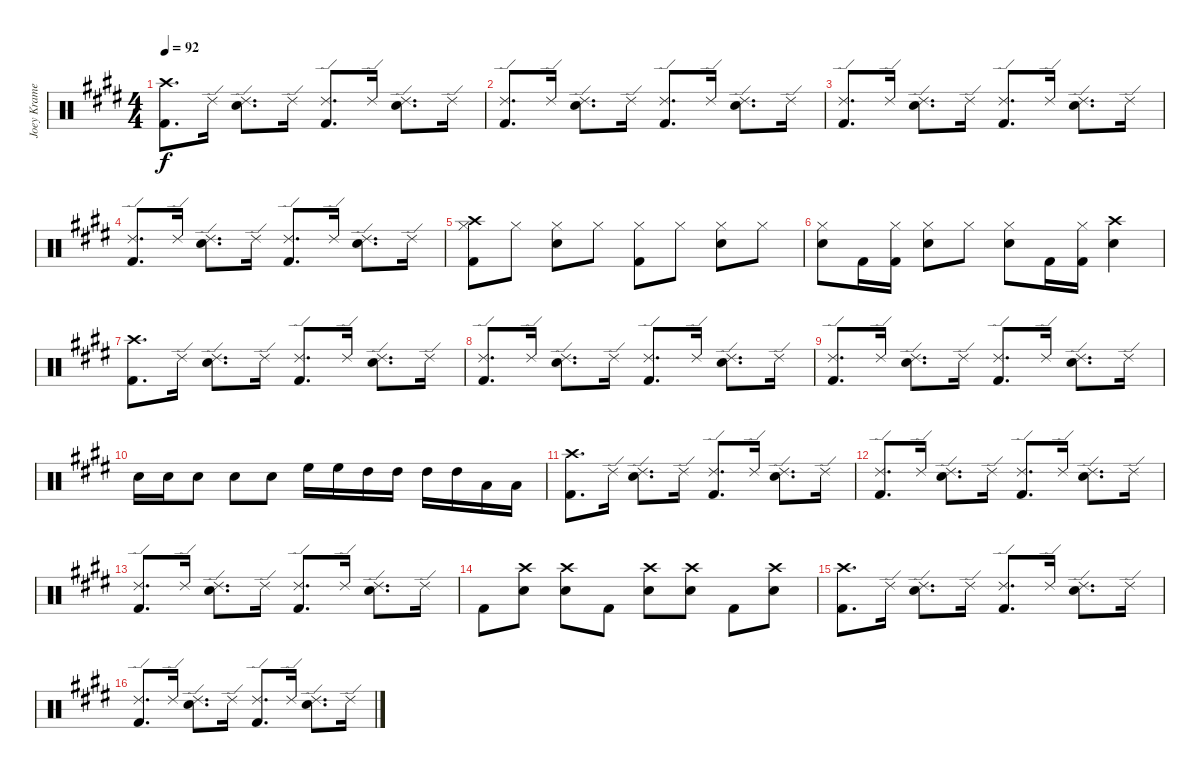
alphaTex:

\track ("Joey Kramer" "Joey Krame") {instrument percussion}
\staff {score}
\articulation defaults
\ts (4 4)
\tempo 92
\clef neutral
\ks e
("Crash high (hit)" "Kick (hit) 2").8{d dy f} "Ride (edge) 2".16 ("Ride (edge) 2" "Electric Snare (hit)").8{d} "Ride (edge) 2".16 ("Ride (edge) 2" "Kick (hit) 2").8{d} "Ride (edge) 2".16 ("Ride (edge) 2" "Electric Snare (hit)").8{d} "Ride (edge) 2".16 |
("Ride (edge) 2" "Kick (hit) 2").8{d} "Ride (edge) 2".16 ("Ride (edge) 2" "Electric Snare (hit)").8{d} "Ride (edge) 2".16 ("Ride (edge) 2" "Kick (hit) 2").8{d} "Ride (edge) 2".16 ("Ride (edge) 2" "Electric Snare (hit)").8{d} "Ride (edge) 2".16 |
("Ride (edge) 2" "Kick (hit) 2").8{d} "Ride (edge) 2".16 ("Ride (edge) 2" "Electric Snare (hit)").8{d} "Ride (edge) 2".16 ("Ride (edge) 2" "Kick (hit) 2").8{d} "Ride (edge) 2".16 ("Ride (edge) 2" "Electric Snare (hit)").8{d} "Ride (edge) 2".16 |
("Ride (edge) 2" "Kick (hit) 2").8{d} "Ride (edge) 2".16 ("Ride (edge) 2" "Electric Snare (hit)").8{d} "Ride (edge) 2".16 ("Ride (edge) 2" "Kick (hit) 2").8{d} "Ride (edge) 2".16 ("Ride (edge) 2" "Electric Snare (hit)").8{d} "Ride (edge) 2".16 |
("Crash high (hit)" "Hi-Hat (closed)" "Kick (hit) 2").8 "Hi-Hat (closed)".8 ("Hi-Hat (closed)" "Electric Snare (hit)").8 "Hi-Hat (closed)".8 ("Hi-Hat (closed)" "Kick (hit) 2").8 "Hi-Hat (closed)".8 ("Hi-Hat (closed)" "Electric Snare (hit)").8 "Hi-Hat (closed)".8 |
("Hi-Hat (closed)" "Electric Snare (hit)").8 "Kick (hit) 2".16 ("Hi-Hat (closed)" "Kick (hit) 2").16 ("Hi-Hat (closed)" "Electric Snare (hit)").8 "Hi-Hat (closed)".8 ("Hi-Hat (closed)" "Electric Snare (hit)").8 "Kick (hit) 2".16 ("Hi-Hat (closed)" "Kick (hit) 2").16 ("Crash high (hit)" "Electric Snare (hit)").4 |
("Crash high (hit)" "Kick (hit) 2").8{d} "Ride (edge) 2".16 ("Ride (edge) 2" "Electric Snare (hit)").8{d} "Ride (edge) 2".16 ("Ride (edge) 2" "Kick (hit) 2").8{d} "Ride (edge) 2".16 ("Ride (edge) 2" "Electric Snare (hit)").8{d} "Ride (edge) 2".16 |
("Ride (edge) 2" "Kick (hit) 2").8{d} "Ride (edge) 2".16 ("Ride (edge) 2" "Electric Snare (hit)").8{d} "Ride (edge) 2".16 ("Ride (edge) 2" "Kick (hit) 2").8{d} "Ride (edge) 2".16 ("Ride (edge) 2" "Electric Snare (hit)").8{d} "Ride (edge) 2".16 |
("Ride (edge) 2" "Kick (hit) 2").8{d} "Ride (edge) 2".16 ("Ride (edge) 2" "Electric Snare (hit)").8{d} "Ride (edge) 2".16 ("Ride (edge) 2" "Kick (hit) 2").8{d} "Ride (edge) 2".16 ("Ride (edge) 2" "Electric Snare (hit)").8{d} "Ride (edge) 2".16 |
"Electric Snare (hit)".16 "Electric Snare (hit)".16 "Electric Snare (hit)".8 "Electric Snare (hit)".8 "Electric Snare (hit)".8 "High Floor Tom (hit)".16 "High Floor Tom (hit)".16 "High Tom (hit)".16 "High Tom (hit)".16 "High Tom (hit)".16 "High Tom (hit)".16 "Low Tom (hit)".16 "Low Tom (hit)".16 |
("Crash high (hit)" "Kick (hit) 2").8{d} "Ride (edge) 2".16 ("Ride (edge) 2" "Electric Snare (hit)").8{d} "Ride (edge) 2".16 ("Ride (edge) 2" "Kick (hit) 2").8{d} "Ride (edge) 2".16 ("Ride (edge) 2" "Electric Snare (hit)").8{d} "Ride (edge) 2".16 |
("Ride (edge) 2" "Kick (hit) 2").8{d} "Ride (edge) 2".16 ("Ride (edge) 2" "Electric Snare (hit)").8{d} "Ride (edge) 2".16 ("Ride (edge) 2" "Kick (hit) 2").8{d} "Ride (edge) 2".16 ("Ride (edge) 2" "Electric Snare (hit)").8{d} "Ride (edge) 2".16 |
("Ride (edge) 2" "Kick (hit) 2").8{d} "Ride (edge) 2".16 ("Ride (edge) 2" "Electric Snare (hit)").8{d} "Ride (edge) 2".16 ("Ride (edge) 2" "Kick (hit) 2").8{d} "Ride (edge) 2".16 ("Ride (edge) 2" "Electric Snare (hit)").8{d} "Ride (edge) 2".16 |
"Kick (hit) 2".8 ("Crash high (hit)" "Electric Snare (hit)").8 ("Crash high (hit)" "Electric Snare (hit)").8 "Kick (hit) 2".8 ("Crash high (hit)" "Electric Snare (hit)").8 ("Crash high (hit)" "Electric Snare (hit)").8 "Kick (hit) 2".8 ("Crash high (hit)" "Electric Snare (hit)").8 |
("Crash high (hit)" "Kick (hit) 2").8{d} "Ride (edge) 2".16 ("Ride (edge) 2" "Electric Snare (hit)").8{d} "Ride (edge) 2".16 ("Ride (edge) 2" "Kick (hit) 2").8{d} "Ride (edge) 2".16 ("Ride (edge) 2" "Electric Snare (hit)").8{d} "Ride (edge) 2".16 |
("Ride (edge) 2" "Kick (hit) 2").8{d} "Ride (edge) 2".16 ("Ride (edge) 2" "Electric Snare (hit)").8{d} "Ride (edge) 2".16 ("Ride (edge) 2" "Kick (hit) 2").8{d} "Ride (edge) 2".16 ("Ride (edge) 2" "Electric Snare (hit)").8{d} "Ride (edge) 2".16
